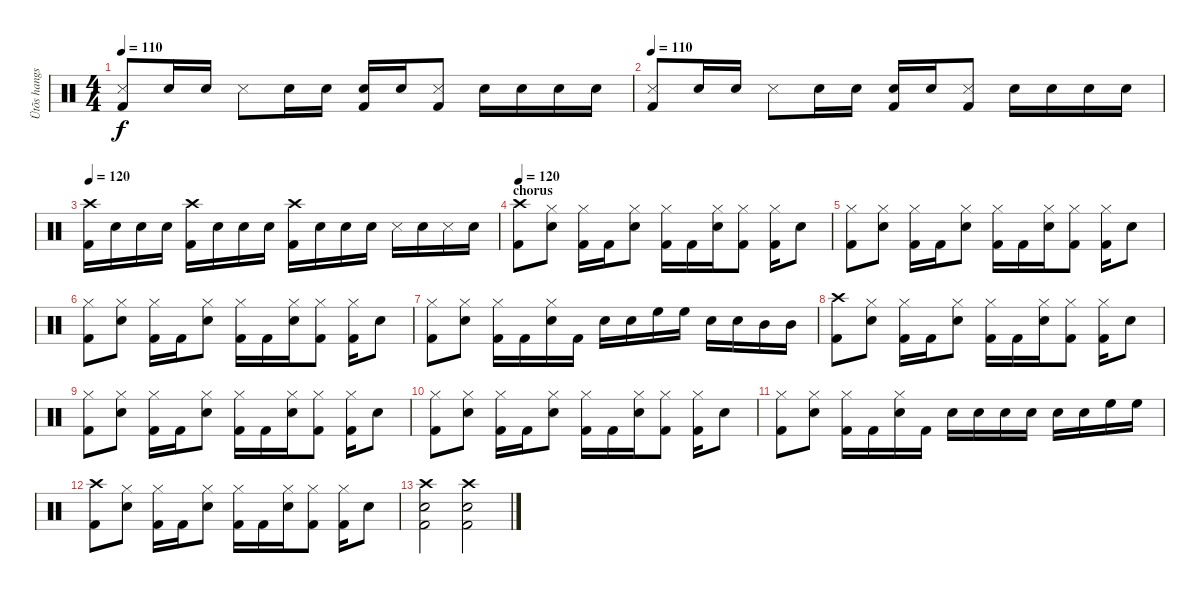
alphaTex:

\track ("Ütõs hangszer" "Ütõs hangs") {instrument percussion}
\staff {score}
\articulation defaults
\ts (4 4)
\tempo 110
\clef neutral
\ks c
("Kick (hit) 2" "Snare (side stick) 3").8{dy f} "Snare (hit) 2".16 "Snare (hit) 2".16 "Snare (side stick) 3".8 "Snare (hit) 2".16 "Snare (hit) 2".16 ("Kick (hit) 2" "Snare (hit) 2").16 "Snare (hit) 2".16 ("Kick (hit) 2" "Snare (side stick) 3").8 "Snare (hit) 2".16 "Snare (hit) 2".16 "Snare (hit) 2".16 "Snare (hit) 2".16 |
\tempo 110
("Kick (hit) 2" "Snare (side stick) 3").8 "Snare (hit) 2".16 "Snare (hit) 2".16 "Snare (side stick) 3".8 "Snare (hit) 2".16 "Snare (hit) 2".16 ("Kick (hit) 2" "Snare (hit) 2").16 "Snare (hit) 2".16 ("Kick (hit) 2" "Snare (side stick) 3").8 "Snare (hit) 2".16 "Snare (hit) 2".16 "Snare (hit) 2".16 "Snare (hit) 2".16 |
\tempo 120
("Crash high (hit)" "Kick (hit) 2").16 "Snare (hit) 2".16 "Snare (hit) 2".16 "Snare (hit) 2".16 ("Crash high (hit)" "Kick (hit) 2").16 "Snare (hit) 2".16 "Snare (hit) 2".16 "Snare (hit) 2".16 ("Crash high (hit)" "Kick (hit) 2").16 "Snare (hit) 2".16 "Snare (hit) 2".16 "Snare (hit) 2".16 "Snare (side stick) 3".16 "Snare (hit) 2".16 "Snare (side stick) 3".16 "Snare (hit) 2".16 |
\section ("" "chorus")
\tempo 120
("Crash high (hit)" "Kick (hit) 2").8 ("Hi-Hat (closed)" "Snare (hit) 2").8 ("Hi-Hat (closed)" "Kick (hit) 2").16 "Kick (hit) 2".16 ("Hi-Hat (closed)" "Snare (hit) 2").8 ("Hi-Hat (closed)" "Kick (hit) 2").16 "Kick (hit) 2".16 ("Hi-Hat (closed)" "Snare (hit) 2").16 ("Hi-Hat (closed)" "Kick (hit) 2").8 ("Hi-Hat (closed)" "Kick (hit) 2").16 "Snare (hit) 2".8 |
("Hi-Hat (closed)" "Kick (hit) 2").8 ("Hi-Hat (closed)" "Snare (hit) 2").8 ("Hi-Hat (closed)" "Kick (hit) 2").16 "Kick (hit) 2".16 ("Hi-Hat (closed)" "Snare (hit) 2").8 ("Hi-Hat (closed)" "Kick (hit) 2").16 "Kick (hit) 2".16 ("Hi-Hat (closed)" "Snare (hit) 2").16 ("Hi-Hat (closed)" "Kick (hit) 2").8 ("Hi-Hat (closed)" "Kick (hit) 2").16 "Snare (hit) 2".8 |
("Hi-Hat (closed)" "Kick (hit) 2").8 ("Hi-Hat (closed)" "Snare (hit) 2").8 ("Hi-Hat (closed)" "Kick (hit) 2").16 "Kick (hit) 2".16 ("Hi-Hat (closed)" "Snare (hit) 2").8 ("Hi-Hat (closed)" "Kick (hit) 2").16 "Kick (hit) 2".16 ("Hi-Hat (closed)" "Snare (hit) 2").16 ("Hi-Hat (closed)" "Kick (hit) 2").8 ("Hi-Hat (closed)" "Kick (hit) 2").16 "Snare (hit) 2".8 |
("Hi-Hat (closed)" "Kick (hit) 2").8 ("Hi-Hat (closed)" "Snare (hit) 2").8 ("Hi-Hat (closed)" "Kick (hit) 2").16 "Kick (hit) 2".16 ("Hi-Hat (closed)" "Snare (hit) 2").16 "Kick (hit) 2".16 "Snare (hit) 2".16 "Snare (hit) 2".16 "High Floor Tom (hit)".16 "High Floor Tom (hit)".16 "Snare (hit) 2".16 "Snare (hit) 2".16 "Mid Tom (hit)".16 "Mid Tom (hit)".16 |
("Crash high (hit)" "Kick (hit) 2").8 ("Hi-Hat (closed)" "Snare (hit) 2").8 ("Hi-Hat (closed)" "Kick (hit) 2").16 "Kick (hit) 2".16 ("Hi-Hat (closed)" "Snare (hit) 2").8 ("Hi-Hat (closed)" "Kick (hit) 2").16 "Kick (hit) 2".16 ("Hi-Hat (closed)" "Snare (hit) 2").16 ("Hi-Hat (closed)" "Kick (hit) 2").8 ("Hi-Hat (closed)" "Kick (hit) 2").16 "Snare (hit) 2".8 |
("Hi-Hat (closed)" "Kick (hit) 2").8 ("Hi-Hat (closed)" "Snare (hit) 2").8 ("Hi-Hat (closed)" "Kick (hit) 2").16 "Kick (hit) 2".16 ("Hi-Hat (closed)" "Snare (hit) 2").8 ("Hi-Hat (closed)" "Kick (hit) 2").16 "Kick (hit) 2".16 ("Hi-Hat (closed)" "Snare (hit) 2").16 ("Hi-Hat (closed)" "Kick (hit) 2").8 ("Hi-Hat (closed)" "Kick (hit) 2").16 "Snare (hit) 2".8 |
("Hi-Hat (closed)" "Kick (hit) 2").8 ("Hi-Hat (closed)" "Snare (hit) 2").8 ("Hi-Hat (closed)" "Kick (hit) 2").16 "Kick (hit) 2".16 ("Hi-Hat (closed)" "Snare (hit) 2").8 ("Hi-Hat (closed)" "Kick (hit) 2").16 "Kick (hit) 2".16 ("Hi-Hat (closed)" "Snare (hit) 2").16 ("Hi-Hat (closed)" "Kick (hit) 2").8 ("Hi-Hat (closed)" "Kick (hit) 2").16 "Snare (hit) 2".8 |
("Hi-Hat (closed)" "Kick (hit) 2").8 ("Hi-Hat (closed)" "Snare (hit) 2").8 ("Hi-Hat (closed)" "Kick (hit) 2").16 "Kick (hit) 2".16 ("Hi-Hat (closed)" "Snare (hit) 2").16 "Kick (hit) 2".16 "Snare (hit) 2".16 "Snare (hit) 2".16 "Snare (hit) 2".16 "Snare (hit) 2".16 "Snare (hit) 2".16 "Snare (hit) 2".16 "High Floor Tom (hit)".16 "High Floor Tom (hit)".16 |
("Crash high (hit)" "Kick (hit) 2").8 ("Hi-Hat (closed)" "Snare (hit) 2").8 ("Hi-Hat (closed)" "Kick (hit) 2").16 "Kick (hit) 2".16 ("Hi-Hat (closed)" "Snare (hit) 2").8 ("Hi-Hat (closed)" "Kick (hit) 2").16 "Kick (hit) 2".16 ("Hi-Hat (closed)" "Snare (hit) 2").16 ("Hi-Hat (closed)" "Kick (hit) 2").8 ("Hi-Hat (closed)" "Kick (hit) 2").16 "Snare (hit) 2".8 |
("Crash high (hit)" "Snare (hit) 2" "Kick (hit) 2").2 ("Crash high (hit)" "Snare (hit) 2" "Kick (hit) 2").2
